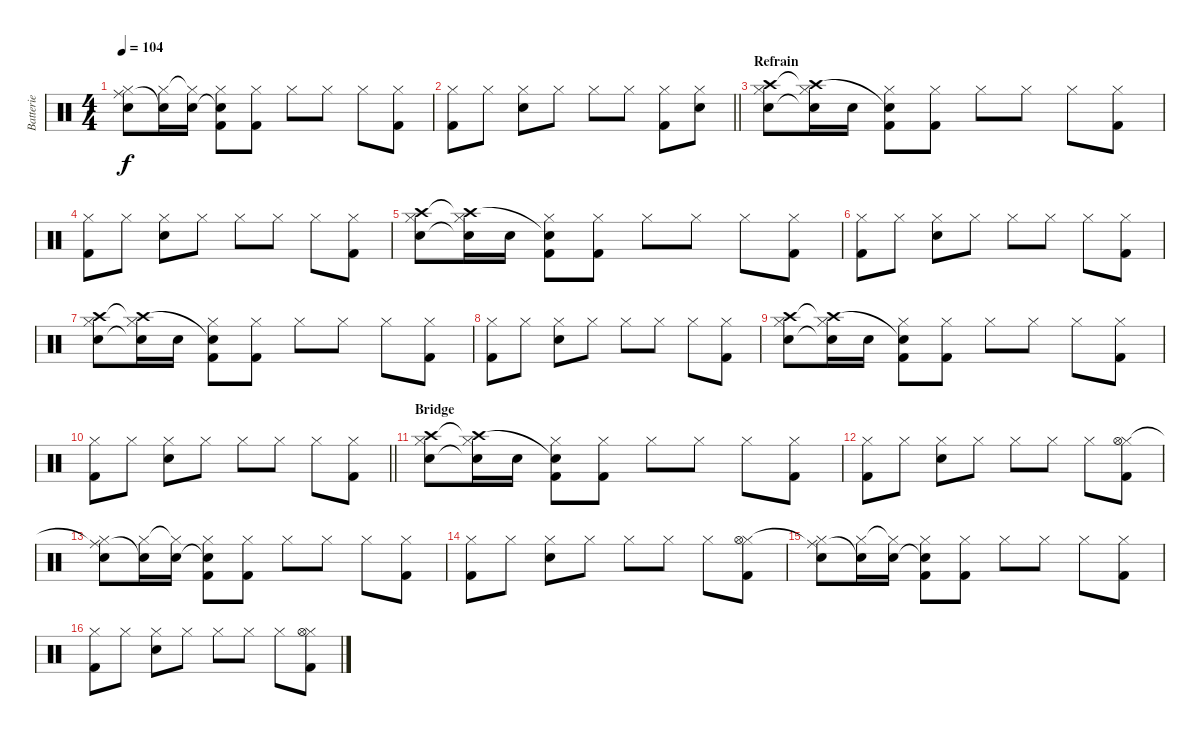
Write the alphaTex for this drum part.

\track ("Batterie" "Batterie") {instrument percussion}
\staff {score}
\articulation defaults
\ts (4 4)
\tempo 104
\clef neutral
\ks c
("Hi-Hat (closed)" "Ride (middle)"{t} "Electric Snare (hit)").8{dy f} ("Hi-Hat (closed)" "Electric Snare (hit)"{t}).16 ("Hi-Hat (closed)"{t} "Electric Snare (hit)").16 ("Hi-Hat (closed)" "Snare (hit) 2"{t} "Kick (hit) 2").8 ("Hi-Hat (closed)" "Kick (hit) 2").8 "Hi-Hat (closed)".8 "Hi-Hat (closed)".8 "Hi-Hat (closed)".8 ("Hi-Hat (closed)" "Kick (hit) 2").8 |
\barLineRight lightlight
("Hi-Hat (closed)" "Kick (hit) 2").8 "Hi-Hat (closed)".8 ("Hi-Hat (closed)" "Electric Snare (hit)").8 "Hi-Hat (closed)".8 "Hi-Hat (closed)".8 "Hi-Hat (closed)".8 ("Hi-Hat (closed)" "Kick (hit) 2").8 ("Hi-Hat (closed)" "Electric Snare (hit)").8 |
\section ("" "Refrain")
("Hi-Hat (closed)" "Crash high (hit)" "Electric Snare (hit)").8 ("Hi-Hat (closed)" "Crash high (hit)"{t} "Electric Snare (hit)"{t}).16 "Electric Snare (hit)".16 ("Hi-Hat (closed)" "Snare (hit) 2"{t} "Kick (hit) 2").8 ("Hi-Hat (closed)" "Kick (hit) 2").8 "Hi-Hat (closed)".8 "Hi-Hat (closed)".8 "Hi-Hat (closed)".8 ("Hi-Hat (closed)" "Kick (hit) 2").8 |
("Hi-Hat (closed)" "Kick (hit) 2").8 "Hi-Hat (closed)".8 ("Hi-Hat (closed)" "Electric Snare (hit)").8 "Hi-Hat (closed)".8 "Hi-Hat (closed)".8 "Hi-Hat (closed)".8 "Hi-Hat (closed)".8 ("Hi-Hat (closed)" "Kick (hit) 2").8 |
("Hi-Hat (closed)" "Crash high (hit)" "Electric Snare (hit)").8 ("Hi-Hat (closed)" "Crash high (hit)"{t} "Electric Snare (hit)"{t}).16 "Electric Snare (hit)".16 ("Hi-Hat (closed)" "Snare (hit) 2"{t} "Kick (hit) 2").8 ("Hi-Hat (closed)" "Kick (hit) 2").8 "Hi-Hat (closed)".8 "Hi-Hat (closed)".8 "Hi-Hat (closed)".8 ("Hi-Hat (closed)" "Kick (hit) 2").8 |
("Hi-Hat (closed)" "Kick (hit) 2").8 "Hi-Hat (closed)".8 ("Hi-Hat (closed)" "Electric Snare (hit)").8 "Hi-Hat (closed)".8 "Hi-Hat (closed)".8 "Hi-Hat (closed)".8 "Hi-Hat (closed)".8 ("Hi-Hat (closed)" "Kick (hit) 2").8 |
("Hi-Hat (closed)" "Crash high (hit)" "Electric Snare (hit)").8 ("Hi-Hat (closed)" "Crash high (hit)"{t} "Electric Snare (hit)"{t}).16 "Electric Snare (hit)".16 ("Hi-Hat (closed)" "Snare (hit) 2"{t} "Kick (hit) 2").8 ("Hi-Hat (closed)" "Kick (hit) 2").8 "Hi-Hat (closed)".8 "Hi-Hat (closed)".8 "Hi-Hat (closed)".8 ("Hi-Hat (closed)" "Kick (hit) 2").8 |
("Hi-Hat (closed)" "Kick (hit) 2").8 "Hi-Hat (closed)".8 ("Hi-Hat (closed)" "Electric Snare (hit)").8 "Hi-Hat (closed)".8 "Hi-Hat (closed)".8 "Hi-Hat (closed)".8 "Hi-Hat (closed)".8 ("Hi-Hat (closed)" "Kick (hit) 2").8 |
("Hi-Hat (closed)" "Crash high (hit)" "Electric Snare (hit)").8 ("Hi-Hat (closed)" "Crash high (hit)"{t} "Electric Snare (hit)"{t}).16 "Electric Snare (hit)".16 ("Hi-Hat (closed)" "Snare (hit) 2"{t} "Kick (hit) 2").8 ("Hi-Hat (closed)" "Kick (hit) 2").8 "Hi-Hat (closed)".8 "Hi-Hat (closed)".8 "Hi-Hat (closed)".8 ("Hi-Hat (closed)" "Kick (hit) 2").8 |
\barLineRight lightlight
("Hi-Hat (closed)" "Kick (hit) 2").8 "Hi-Hat (closed)".8 ("Hi-Hat (closed)" "Electric Snare (hit)").8 "Hi-Hat (closed)".8 "Hi-Hat (closed)".8 "Hi-Hat (closed)".8 "Hi-Hat (closed)".8 ("Hi-Hat (closed)" "Kick (hit) 2").8 |
\section ("" "Bridge")
("Hi-Hat (closed)" "Crash high (hit)" "Electric Snare (hit)").8 ("Hi-Hat (closed)" "Crash high (hit)"{t} "Electric Snare (hit)"{t}).16 "Electric Snare (hit)".16 ("Hi-Hat (closed)" "Snare (hit) 2"{t} "Kick (hit) 2").8 ("Hi-Hat (closed)" "Kick (hit) 2").8 "Hi-Hat (closed)".8 "Hi-Hat (closed)".8 "Hi-Hat (closed)".8 ("Hi-Hat (closed)" "Kick (hit) 2").8 |
("Hi-Hat (closed)" "Kick (hit) 2").8 "Hi-Hat (closed)".8 ("Hi-Hat (closed)" "Electric Snare (hit)").8 "Hi-Hat (closed)".8 "Hi-Hat (closed)".8 "Hi-Hat (closed)".8 "Hi-Hat (closed)".8 ("Hi-Hat (closed)" "Hi-Hat (open)" "Kick (hit) 2").8 |
("Hi-Hat (closed)" "Ride (middle)"{t} "Electric Snare (hit)").8 ("Hi-Hat (closed)" "Electric Snare (hit)"{t}).16 ("Hi-Hat (closed)"{t} "Electric Snare (hit)").16 ("Hi-Hat (closed)" "Snare (hit) 2"{t} "Kick (hit) 2").8 ("Hi-Hat (closed)" "Kick (hit) 2").8 "Hi-Hat (closed)".8 "Hi-Hat (closed)".8 "Hi-Hat (closed)".8 ("Hi-Hat (closed)" "Kick (hit) 2").8 |
("Hi-Hat (closed)" "Kick (hit) 2").8 "Hi-Hat (closed)".8 ("Hi-Hat (closed)" "Electric Snare (hit)").8 "Hi-Hat (closed)".8 "Hi-Hat (closed)".8 "Hi-Hat (closed)".8 "Hi-Hat (closed)".8 ("Hi-Hat (closed)" "Hi-Hat (open)" "Kick (hit) 2").8 |
("Hi-Hat (closed)" "Ride (middle)"{t} "Electric Snare (hit)").8 ("Hi-Hat (closed)" "Electric Snare (hit)"{t}).16 ("Hi-Hat (closed)"{t} "Electric Snare (hit)").16 ("Hi-Hat (closed)" "Snare (hit) 2"{t} "Kick (hit) 2").8 ("Hi-Hat (closed)" "Kick (hit) 2").8 "Hi-Hat (closed)".8 "Hi-Hat (closed)".8 "Hi-Hat (closed)".8 ("Hi-Hat (closed)" "Kick (hit) 2").8 |
("Hi-Hat (closed)" "Kick (hit) 2").8 "Hi-Hat (closed)".8 ("Hi-Hat (closed)" "Electric Snare (hit)").8 "Hi-Hat (closed)".8 "Hi-Hat (closed)".8 "Hi-Hat (closed)".8 "Hi-Hat (closed)".8 ("Hi-Hat (closed)" "Hi-Hat (open)" "Kick (hit) 2").8
